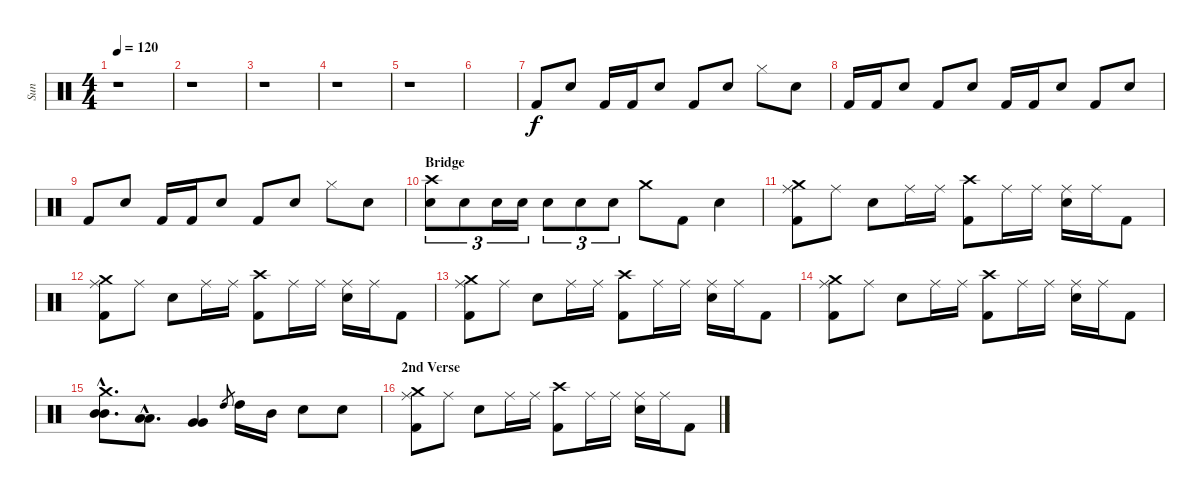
\track ("Sun" "Sun") {instrument percussion}
\staff {score}
\articulation defaults
\ts (4 4)
\tempo 120
\clef neutral
\ks c
r.1{dy f} |
r.1 |
r.1 |
r.1 |
r.1 |
|
"Kick (hit) 2".8 "Electric Snare (hit)".8 "Kick (hit) 2".16 "Kick (hit) 2".16 "Electric Snare (hit)".8 "Kick (hit) 2".8 "Electric Snare (hit)".8 "Hi-Hat (closed)".8 "Electric Snare (hit)".8 |
"Kick (hit) 2".16 "Kick (hit) 2".16 "Electric Snare (hit)".8 "Kick (hit) 2".8 "Electric Snare (hit)".8 "Kick (hit) 2".16 "Kick (hit) 2".16 "Electric Snare (hit)".8 "Kick (hit) 2".8 "Electric Snare (hit)".8 |
"Kick (hit) 2".8 "Electric Snare (hit)".8 "Kick (hit) 2".16 "Kick (hit) 2".16 "Electric Snare (hit)".8 "Kick (hit) 2".8 "Electric Snare (hit)".8 "Hi-Hat (closed)".8 "Electric Snare (hit)".8 |
\section ("" "Bridge")
("Crash high (hit)" "Electric Snare (hit)").8{tu (3 2)} "Electric Snare (hit)".8{tu (3 2)} "Electric Snare (hit)".16{tu (3 2)} "Electric Snare (hit)".16{tu (3 2)} "Electric Snare (hit)".8{tu (3 2)} "Electric Snare (hit)".8{tu (3 2)} "Electric Snare (hit)".8{tu (3 2)} "Crash medium (hit)".8 "Kick (hit) 2".8 "Electric Snare (hit)".4 |
("Ride (middle)" "Crash medium (hit)" "Kick (hit) 2").8 "Ride (middle)".8 "Electric Snare (hit)".8 "Ride (middle)".16 "Ride (middle)".16 ("Crash high (hit)" "Kick (hit) 2").8 "Ride (middle)".16 "Ride (middle)".16 ("Ride (middle)" "Electric Snare (hit)").16 "Ride (middle)".16 "Kick (hit) 2".8 |
("Ride (middle)" "Crash medium (hit)" "Kick (hit) 2").8 "Ride (middle)".8 "Electric Snare (hit)".8 "Ride (middle)".16 "Ride (middle)".16 ("Crash high (hit)" "Kick (hit) 2").8 "Ride (middle)".16 "Ride (middle)".16 ("Ride (middle)" "Electric Snare (hit)").16 "Ride (middle)".16 "Kick (hit) 2".8 |
("Ride (middle)" "Crash medium (hit)" "Kick (hit) 2").8 "Ride (middle)".8 "Electric Snare (hit)".8 "Ride (middle)".16 "Ride (middle)".16 ("Crash high (hit)" "Kick (hit) 2").8 "Ride (middle)".16 "Ride (middle)".16 ("Ride (middle)" "Electric Snare (hit)").16 "Ride (middle)".16 "Kick (hit) 2".8 |
("Ride (middle)" "Crash medium (hit)" "Kick (hit) 2").8 "Ride (middle)".8 "Electric Snare (hit)".8 "Ride (middle)".16 "Ride (middle)".16 ("Crash high (hit)" "Kick (hit) 2").8 "Ride (middle)".16 "Ride (middle)".16 ("Ride (middle)" "Electric Snare (hit)").16 "Ride (middle)".16 "Kick (hit) 2".8 |
("Crash medium (hit)"{hac} "Mid Tom (hit)"{hac} "Mid Tom (hit)"{hac}).8{d} ("Low Tom (hit)"{hac} "Low Tom (hit)"{hac}).8{d} ("Very Low Tom (hit)" "Very Low Tom (hit)").4 "High Tom (hit)".8{gr} "High Tom (hit)".16 "Mid Tom (hit)".16 "Electric Snare (hit)".8 "Electric Snare (hit)".8 |
\section ("" "2nd Verse")
("Ride (middle)" "Crash medium (hit)" "Kick (hit) 2").8 "Ride (middle)".8 "Electric Snare (hit)".8 "Ride (middle)".16 "Ride (middle)".16 ("Crash high (hit)" "Kick (hit) 2").8 "Ride (middle)".16 "Ride (middle)".16 ("Ride (middle)" "Electric Snare (hit)").16 "Ride (middle)".16 "Kick (hit) 2".8
